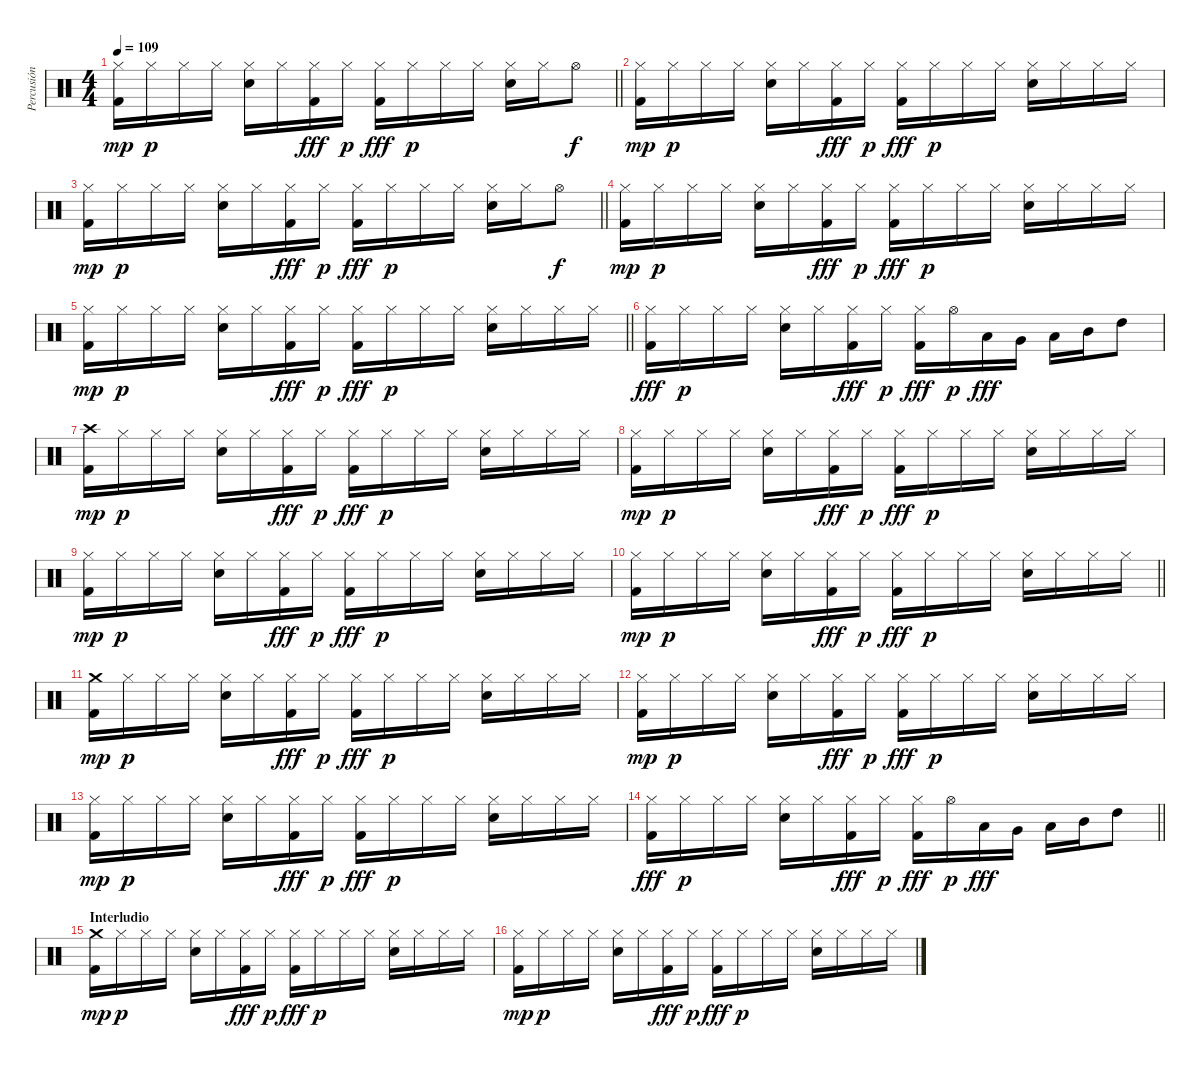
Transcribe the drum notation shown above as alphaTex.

\track ("Percusión" "Percusión") {instrument percussion}
\staff {score}
\articulation defaults
\ts (4 4)
\tempo 109
\clef neutral
\barLineRight lightlight
\ks c
("Hi-Hat (closed)" "Kick (hit) 2").16{dy mp} "Hi-Hat (closed)".16{dy p} "Hi-Hat (closed)".16 "Hi-Hat (closed)".16 ("Hi-Hat (closed)" "Snare (hit) 2").16 "Hi-Hat (closed)".16 ("Hi-Hat (closed)" "Kick (hit) 2").16{dy fff} "Hi-Hat (closed)".16{dy p} ("Hi-Hat (closed)" "Kick (hit) 2").16{dy fff} "Hi-Hat (closed)".16{dy p} "Hi-Hat (closed)".16 "Hi-Hat (closed)".16 ("Hi-Hat (closed)" "Snare (hit) 2").16 "Hi-Hat (closed)".16 "Hi-Hat (open)".8{dy f} |
("Hi-Hat (closed)" "Kick (hit) 2").16{dy mp} "Hi-Hat (closed)".16{dy p} "Hi-Hat (closed)".16 "Hi-Hat (closed)".16 ("Hi-Hat (closed)" "Snare (hit) 2").16 "Hi-Hat (closed)".16 ("Hi-Hat (closed)" "Kick (hit) 2").16{dy fff} "Hi-Hat (closed)".16{dy p} ("Hi-Hat (closed)" "Kick (hit) 2").16{dy fff} "Hi-Hat (closed)".16{dy p} "Hi-Hat (closed)".16 "Hi-Hat (closed)".16 ("Hi-Hat (closed)" "Snare (hit) 2").16 "Hi-Hat (closed)".16 "Hi-Hat (closed)".16 "Hi-Hat (closed)".16 |
\barLineRight lightlight
("Hi-Hat (closed)" "Kick (hit) 2").16{dy mp} "Hi-Hat (closed)".16{dy p} "Hi-Hat (closed)".16 "Hi-Hat (closed)".16 ("Hi-Hat (closed)" "Snare (hit) 2").16 "Hi-Hat (closed)".16 ("Hi-Hat (closed)" "Kick (hit) 2").16{dy fff} "Hi-Hat (closed)".16{dy p} ("Hi-Hat (closed)" "Kick (hit) 2").16{dy fff} "Hi-Hat (closed)".16{dy p} "Hi-Hat (closed)".16 "Hi-Hat (closed)".16 ("Hi-Hat (closed)" "Snare (hit) 2").16 "Hi-Hat (closed)".16 "Hi-Hat (open)".8{dy f} |
("Hi-Hat (closed)" "Kick (hit) 2").16{dy mp} "Hi-Hat (closed)".16{dy p} "Hi-Hat (closed)".16 "Hi-Hat (closed)".16 ("Hi-Hat (closed)" "Snare (hit) 2").16 "Hi-Hat (closed)".16 ("Hi-Hat (closed)" "Kick (hit) 2").16{dy fff} "Hi-Hat (closed)".16{dy p} ("Hi-Hat (closed)" "Kick (hit) 2").16{dy fff} "Hi-Hat (closed)".16{dy p} "Hi-Hat (closed)".16 "Hi-Hat (closed)".16 ("Hi-Hat (closed)" "Snare (hit) 2").16 "Hi-Hat (closed)".16 "Hi-Hat (closed)".16 "Hi-Hat (closed)".16 |
\barLineRight lightlight
("Hi-Hat (closed)" "Kick (hit) 2").16{dy mp} "Hi-Hat (closed)".16{dy p} "Hi-Hat (closed)".16 "Hi-Hat (closed)".16 ("Hi-Hat (closed)" "Snare (hit) 2").16 "Hi-Hat (closed)".16 ("Hi-Hat (closed)" "Kick (hit) 2").16{dy fff} "Hi-Hat (closed)".16{dy p} ("Hi-Hat (closed)" "Kick (hit) 2").16{dy fff} "Hi-Hat (closed)".16{dy p} "Hi-Hat (closed)".16 "Hi-Hat (closed)".16 ("Hi-Hat (closed)" "Snare (hit) 2").16 "Hi-Hat (closed)".16 "Hi-Hat (closed)".16 "Hi-Hat (closed)".16 |
("Hi-Hat (closed)" "Kick (hit) 2").16{dy fff} "Hi-Hat (closed)".16{dy p} "Hi-Hat (closed)".16 "Hi-Hat (closed)".16 ("Hi-Hat (closed)" "Snare (hit) 2").16 "Hi-Hat (closed)".16 ("Hi-Hat (closed)" "Kick (hit) 2").16{dy fff} "Hi-Hat (closed)".16{dy p} ("Hi-Hat (closed)" "Kick (hit) 2").16{dy fff} "Hi-Hat (open)".16{dy p} "Low Floor Tom (hit)".16{dy fff} "Very Low Tom (hit)".16 "Low Tom (hit)".16 "Mid Tom (hit)".16 "High Tom (hit)".8 |
("Crash high (hit)" "Kick (hit) 2").16{dy mp} "Hi-Hat (closed)".16{dy p} "Hi-Hat (closed)".16 "Hi-Hat (closed)".16 ("Hi-Hat (closed)" "Snare (hit) 2").16 "Hi-Hat (closed)".16 ("Hi-Hat (closed)" "Kick (hit) 2").16{dy fff} "Hi-Hat (closed)".16{dy p} ("Hi-Hat (closed)" "Kick (hit) 2").16{dy fff} "Hi-Hat (closed)".16{dy p} "Hi-Hat (closed)".16 "Hi-Hat (closed)".16 ("Hi-Hat (closed)" "Snare (hit) 2").16 "Hi-Hat (closed)".16 "Hi-Hat (closed)".16 "Hi-Hat (closed)".16 |
("Hi-Hat (closed)" "Kick (hit) 2").16{dy mp} "Hi-Hat (closed)".16{dy p} "Hi-Hat (closed)".16 "Hi-Hat (closed)".16 ("Hi-Hat (closed)" "Snare (hit) 2").16 "Hi-Hat (closed)".16 ("Hi-Hat (closed)" "Kick (hit) 2").16{dy fff} "Hi-Hat (closed)".16{dy p} ("Hi-Hat (closed)" "Kick (hit) 2").16{dy fff} "Hi-Hat (closed)".16{dy p} "Hi-Hat (closed)".16 "Hi-Hat (closed)".16 ("Hi-Hat (closed)" "Snare (hit) 2").16 "Hi-Hat (closed)".16 "Hi-Hat (closed)".16 "Hi-Hat (closed)".16 |
("Hi-Hat (closed)" "Kick (hit) 2").16{dy mp} "Hi-Hat (closed)".16{dy p} "Hi-Hat (closed)".16 "Hi-Hat (closed)".16 ("Hi-Hat (closed)" "Snare (hit) 2").16 "Hi-Hat (closed)".16 ("Hi-Hat (closed)" "Kick (hit) 2").16{dy fff} "Hi-Hat (closed)".16{dy p} ("Hi-Hat (closed)" "Kick (hit) 2").16{dy fff} "Hi-Hat (closed)".16{dy p} "Hi-Hat (closed)".16 "Hi-Hat (closed)".16 ("Hi-Hat (closed)" "Snare (hit) 2").16 "Hi-Hat (closed)".16 "Hi-Hat (closed)".16 "Hi-Hat (closed)".16 |
\barLineRight lightlight
("Hi-Hat (closed)" "Kick (hit) 2").16{dy mp} "Hi-Hat (closed)".16{dy p} "Hi-Hat (closed)".16 "Hi-Hat (closed)".16 ("Hi-Hat (closed)" "Snare (hit) 2").16 "Hi-Hat (closed)".16 ("Hi-Hat (closed)" "Kick (hit) 2").16{dy fff} "Hi-Hat (closed)".16{dy p} ("Hi-Hat (closed)" "Kick (hit) 2").16{dy fff} "Hi-Hat (closed)".16{dy p} "Hi-Hat (closed)".16 "Hi-Hat (closed)".16 ("Hi-Hat (closed)" "Snare (hit) 2").16 "Hi-Hat (closed)".16 "Hi-Hat (closed)".16 "Hi-Hat (closed)".16 |
("Crash medium (hit)" "Kick (hit) 2").16{dy mp} "Hi-Hat (closed)".16{dy p} "Hi-Hat (closed)".16 "Hi-Hat (closed)".16 ("Hi-Hat (closed)" "Snare (hit) 2").16 "Hi-Hat (closed)".16 ("Hi-Hat (closed)" "Kick (hit) 2").16{dy fff} "Hi-Hat (closed)".16{dy p} ("Hi-Hat (closed)" "Kick (hit) 2").16{dy fff} "Hi-Hat (closed)".16{dy p} "Hi-Hat (closed)".16 "Hi-Hat (closed)".16 ("Hi-Hat (closed)" "Snare (hit) 2").16 "Hi-Hat (closed)".16 "Hi-Hat (closed)".16 "Hi-Hat (closed)".16 |
("Hi-Hat (closed)" "Kick (hit) 2").16{dy mp} "Hi-Hat (closed)".16{dy p} "Hi-Hat (closed)".16 "Hi-Hat (closed)".16 ("Hi-Hat (closed)" "Snare (hit) 2").16 "Hi-Hat (closed)".16 ("Hi-Hat (closed)" "Kick (hit) 2").16{dy fff} "Hi-Hat (closed)".16{dy p} ("Hi-Hat (closed)" "Kick (hit) 2").16{dy fff} "Hi-Hat (closed)".16{dy p} "Hi-Hat (closed)".16 "Hi-Hat (closed)".16 ("Hi-Hat (closed)" "Snare (hit) 2").16 "Hi-Hat (closed)".16 "Hi-Hat (closed)".16 "Hi-Hat (closed)".16 |
("Hi-Hat (closed)" "Kick (hit) 2").16{dy mp} "Hi-Hat (closed)".16{dy p} "Hi-Hat (closed)".16 "Hi-Hat (closed)".16 ("Hi-Hat (closed)" "Snare (hit) 2").16 "Hi-Hat (closed)".16 ("Hi-Hat (closed)" "Kick (hit) 2").16{dy fff} "Hi-Hat (closed)".16{dy p} ("Hi-Hat (closed)" "Kick (hit) 2").16{dy fff} "Hi-Hat (closed)".16{dy p} "Hi-Hat (closed)".16 "Hi-Hat (closed)".16 ("Hi-Hat (closed)" "Snare (hit) 2").16 "Hi-Hat (closed)".16 "Hi-Hat (closed)".16 "Hi-Hat (closed)".16 |
\barLineRight lightlight
("Hi-Hat (closed)" "Kick (hit) 2").16{dy fff} "Hi-Hat (closed)".16{dy p} "Hi-Hat (closed)".16 "Hi-Hat (closed)".16 ("Hi-Hat (closed)" "Snare (hit) 2").16 "Hi-Hat (closed)".16 ("Hi-Hat (closed)" "Kick (hit) 2").16{dy fff} "Hi-Hat (closed)".16{dy p} ("Hi-Hat (closed)" "Kick (hit) 2").16{dy fff} "Hi-Hat (open)".16{dy p} "Low Floor Tom (hit)".16{dy fff} "Very Low Tom (hit)".16 "Low Tom (hit)".16 "Mid Tom (hit)".16 "High Tom (hit)".8 |
\section ("" "Interludio")
("Crash medium (hit)" "Kick (hit) 2").16{dy mp} "Hi-Hat (closed)".16{dy p} "Hi-Hat (closed)".16 "Hi-Hat (closed)".16 ("Hi-Hat (closed)" "Snare (hit) 2").16 "Hi-Hat (closed)".16 ("Hi-Hat (closed)" "Kick (hit) 2").16{dy fff} "Hi-Hat (closed)".16{dy p} ("Hi-Hat (closed)" "Kick (hit) 2").16{dy fff} "Hi-Hat (closed)".16{dy p} "Hi-Hat (closed)".16 "Hi-Hat (closed)".16 ("Hi-Hat (closed)" "Snare (hit) 2").16 "Hi-Hat (closed)".16 "Hi-Hat (closed)".16 "Hi-Hat (closed)".16 |
("Hi-Hat (closed)" "Kick (hit) 2").16{dy mp} "Hi-Hat (closed)".16{dy p} "Hi-Hat (closed)".16 "Hi-Hat (closed)".16 ("Hi-Hat (closed)" "Snare (hit) 2").16 "Hi-Hat (closed)".16 ("Hi-Hat (closed)" "Kick (hit) 2").16{dy fff} "Hi-Hat (closed)".16{dy p} ("Hi-Hat (closed)" "Kick (hit) 2").16{dy fff} "Hi-Hat (closed)".16{dy p} "Hi-Hat (closed)".16 "Hi-Hat (closed)".16 ("Hi-Hat (closed)" "Snare (hit) 2").16 "Hi-Hat (closed)".16 "Hi-Hat (closed)".16 "Hi-Hat (closed)".16
